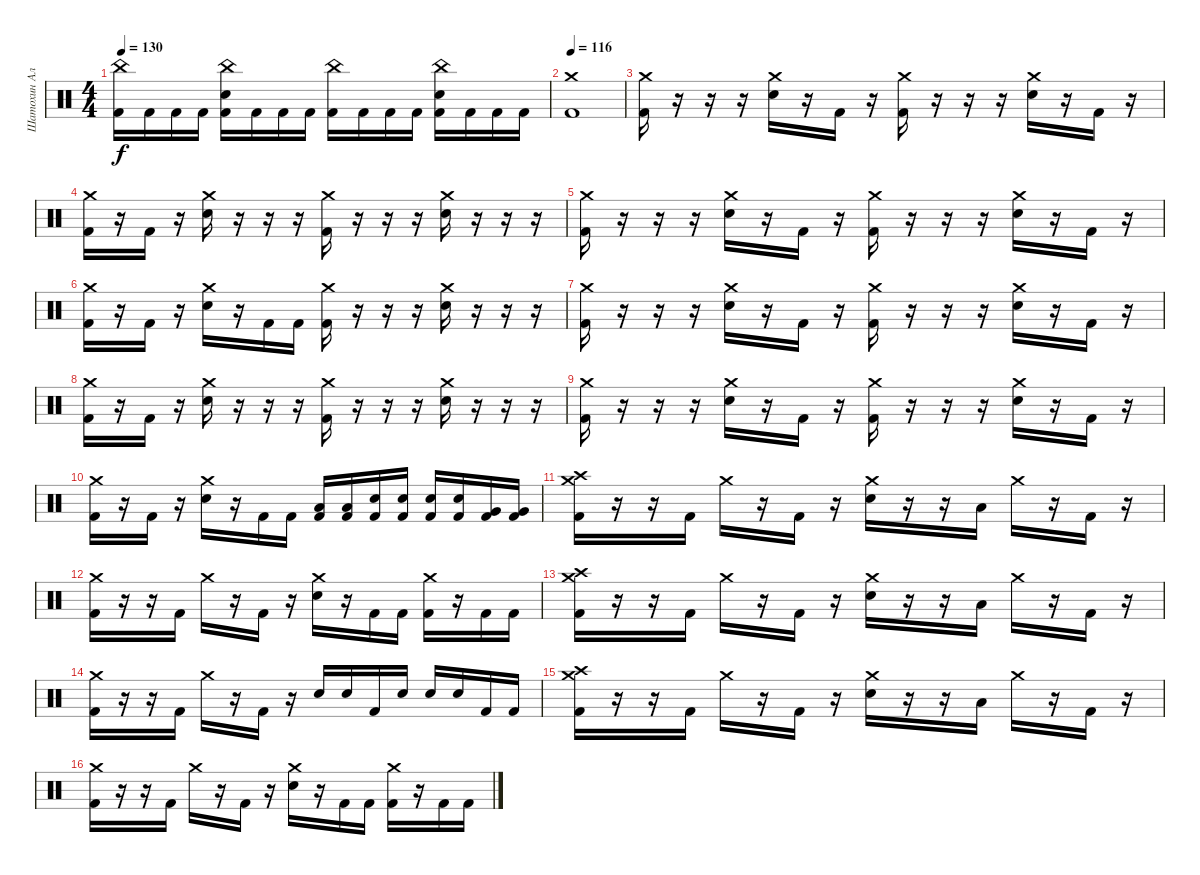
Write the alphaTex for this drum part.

\track ("Шатохин Алексей" "Шатохин Ал") {instrument percussion}
\staff {score}
\articulation defaults
\ts (4 4)
\tempo 130
\clef neutral
\ks c
("China (hit)" "Kick (hit) 2").16{dy f} "Kick (hit) 2".16 "Kick (hit) 2".16 "Kick (hit) 2".16 ("China (hit)" "Electric Snare (hit)" "Kick (hit) 2").16 "Kick (hit) 2".16 "Kick (hit) 2".16 "Kick (hit) 2".16 ("China (hit)" "Kick (hit) 2").16 "Kick (hit) 2".16 "Kick (hit) 2".16 "Kick (hit) 2".16 ("China (hit)" "Electric Snare (hit)" "Kick (hit) 2").16 "Kick (hit) 2".16 "Kick (hit) 2".16 "Kick (hit) 2".16 |
\tempo 116
("Crash medium (hit)" "Kick (hit) 2").1 |
("Crash medium (hit)" "Kick (hit) 2").16 r.16 r.16 r.16 ("Crash medium (hit)" "Electric Snare (hit)").16 r.16 "Kick (hit) 2".16 r.16 ("Crash medium (hit)" "Kick (hit) 2").16 r.16 r.16 r.16 ("Crash medium (hit)" "Electric Snare (hit)").16 r.16 "Kick (hit) 2".16 r.16 |
("Crash medium (hit)" "Kick (hit) 2").16 r.16 "Kick (hit) 2".16 r.16 ("Crash medium (hit)" "Electric Snare (hit)").16 r.16 r.16 r.16 ("Crash medium (hit)" "Kick (hit) 2").16 r.16 r.16 r.16 ("Crash medium (hit)" "Electric Snare (hit)").16 r.16 r.16 r.16 |
("Crash medium (hit)" "Kick (hit) 2").16 r.16 r.16 r.16 ("Crash medium (hit)" "Electric Snare (hit)").16 r.16 "Kick (hit) 2".16 r.16 ("Crash medium (hit)" "Kick (hit) 2").16 r.16 r.16 r.16 ("Crash medium (hit)" "Electric Snare (hit)").16 r.16 "Kick (hit) 2".16 r.16 |
("Crash medium (hit)" "Kick (hit) 2").16 r.16 "Kick (hit) 2".16 r.16 ("Crash medium (hit)" "Electric Snare (hit)").16 r.16 "Kick (hit) 2".16 "Kick (hit) 2".16 ("Crash medium (hit)" "Kick (hit) 2").16 r.16 r.16 r.16 ("Crash medium (hit)" "Electric Snare (hit)").16 r.16 r.16 r.16 |
("Crash medium (hit)" "Kick (hit) 2").16 r.16 r.16 r.16 ("Crash medium (hit)" "Electric Snare (hit)").16 r.16 "Kick (hit) 2".16 r.16 ("Crash medium (hit)" "Kick (hit) 2").16 r.16 r.16 r.16 ("Crash medium (hit)" "Electric Snare (hit)").16 r.16 "Kick (hit) 2".16 r.16 |
("Crash medium (hit)" "Kick (hit) 2").16 r.16 "Kick (hit) 2".16 r.16 ("Crash medium (hit)" "Electric Snare (hit)").16 r.16 r.16 r.16 ("Crash medium (hit)" "Kick (hit) 2").16 r.16 r.16 r.16 ("Crash medium (hit)" "Electric Snare (hit)").16 r.16 r.16 r.16 |
("Crash medium (hit)" "Kick (hit) 2").16 r.16 r.16 r.16 ("Crash medium (hit)" "Electric Snare (hit)").16 r.16 "Kick (hit) 2".16 r.16 ("Crash medium (hit)" "Kick (hit) 2").16 r.16 r.16 r.16 ("Crash medium (hit)" "Electric Snare (hit)").16 r.16 "Kick (hit) 2".16 r.16 |
("Crash medium (hit)" "Kick (hit) 2").16 r.16 "Kick (hit) 2".16 r.16 ("Crash medium (hit)" "Electric Snare (hit)").16 r.16 "Kick (hit) 2".16 "Kick (hit) 2".16 ("Low Tom (hit)" "Kick (hit) 2").16 ("Low Tom (hit)" "Kick (hit) 2").16 ("Electric Snare (hit)" "Kick (hit) 2").16 ("Electric Snare (hit)" "Kick (hit) 2").16 ("Electric Snare (hit)" "Kick (hit) 2").16 ("Electric Snare (hit)" "Kick (hit) 2").16 ("Very Low Tom (hit)" "Kick (hit) 2").16 ("Very Low Tom (hit)" "Kick (hit) 2").16 |
("Crash medium (hit)" "Crash high (hit)" "Kick (hit) 2").16 r.16 r.16 "Kick (hit) 2".16 "Crash medium (hit)".16 r.16 "Kick (hit) 2".16 r.16 ("Crash medium (hit)" "Electric Snare (hit)").16 r.16 r.16 "Low Tom (hit)".16 "Crash medium (hit)".16 r.16 "Kick (hit) 2".16 r.16 |
("Crash medium (hit)" "Kick (hit) 2").16 r.16 r.16 "Kick (hit) 2".16 "Crash medium (hit)".16 r.16 "Kick (hit) 2".16 r.16 ("Crash medium (hit)" "Electric Snare (hit)").16 r.16 "Kick (hit) 2".16 "Kick (hit) 2".16 ("Crash medium (hit)" "Kick (hit) 2").16 r.16 "Kick (hit) 2".16 "Kick (hit) 2".16 |
("Crash medium (hit)" "Crash high (hit)" "Kick (hit) 2").16 r.16 r.16 "Kick (hit) 2".16 "Crash medium (hit)".16 r.16 "Kick (hit) 2".16 r.16 ("Crash medium (hit)" "Electric Snare (hit)").16 r.16 r.16 "Low Tom (hit)".16 "Crash medium (hit)".16 r.16 "Kick (hit) 2".16 r.16 |
("Crash medium (hit)" "Kick (hit) 2").16 r.16 r.16 "Kick (hit) 2".16 "Crash medium (hit)".16 r.16 "Kick (hit) 2".16 r.16 "Electric Snare (hit)".16 "Electric Snare (hit)".16 "Kick (hit) 2".16 "Electric Snare (hit)".16 "Electric Snare (hit)".16 "Electric Snare (hit)".16 "Kick (hit) 2".16 "Kick (hit) 2".16 |
("Crash medium (hit)" "Crash high (hit)" "Kick (hit) 2").16 r.16 r.16 "Kick (hit) 2".16 "Crash medium (hit)".16 r.16 "Kick (hit) 2".16 r.16 ("Crash medium (hit)" "Electric Snare (hit)").16 r.16 r.16 "Low Tom (hit)".16 "Crash medium (hit)".16 r.16 "Kick (hit) 2".16 r.16 |
("Crash medium (hit)" "Kick (hit) 2").16 r.16 r.16 "Kick (hit) 2".16 "Crash medium (hit)".16 r.16 "Kick (hit) 2".16 r.16 ("Crash medium (hit)" "Electric Snare (hit)").16 r.16 "Kick (hit) 2".16 "Kick (hit) 2".16 ("Crash medium (hit)" "Kick (hit) 2").16 r.16 "Kick (hit) 2".16 "Kick (hit) 2".16
